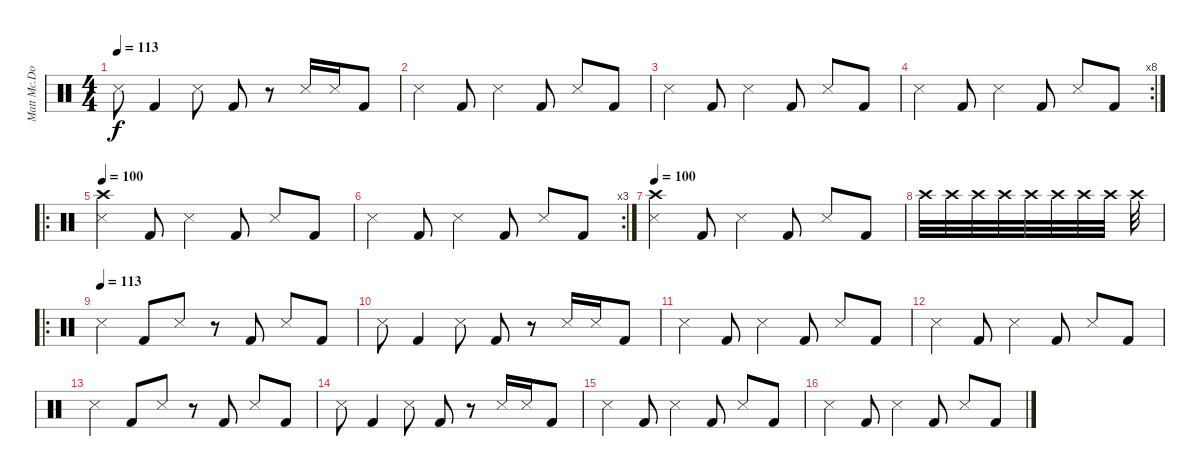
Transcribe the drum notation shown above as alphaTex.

\track ("Matt Mc.Donough" "Matt Mc.Do") {instrument percussion}
\staff {score}
\articulation defaults
\ts (4 4)
\tempo 113
\clef neutral
\ks c "Snare (side stick) 3".8{dy f} "Kick (hit) 2".4 "Snare (side stick) 3".8 "Kick (hit) 2".8
r.8 "Snare (side stick) 3".16 "Snare (side stick) 3".16 "Kick (hit) 2".8 |
"Snare (side stick) 3".4 "Kick (hit) 2".8 "Snare (side stick) 3".4 "Kick (hit) 2".8 "Snare (side stick) 3".8 "Kick (hit) 2".8 |
"Snare (side stick) 3".4 "Kick (hit) 2".8 "Snare (side stick) 3".4 "Kick (hit) 2".8 "Snare (side stick) 3".8 "Kick (hit) 2".8 |
\rc 8 "Snare (side stick) 3".4 "Kick (hit) 2".8 "Snare (side stick) 3".4 "Kick (hit) 2".8 "Snare (side stick) 3".8 "Kick (hit) 2".8
|
\ro
\tempo 100
("Crash high (hit)" "Snare (side stick) 3").4 "Kick (hit) 2".8 "Snare (side stick) 3".4 "Kick (hit) 2".8 "Snare (side stick) 3".8 "Kick (hit) 2".8 |
\rc 3 "Snare (side stick) 3".4 "Kick (hit) 2".8 "Snare (side stick) 3".4 "Kick (hit) 2".8 "Snare (side stick) 3".8 "Kick (hit) 2".8
|
\tempo 100
("Crash high (hit)" "Snare (side stick) 3").4 "Kick (hit) 2".8 "Snare (side stick) 3".4 "Kick (hit) 2".8 "Snare (side stick) 3".8 "Kick (hit) 2".8 |
"Crash high (hit)".32 "Crash high (hit)".32 "Crash high (hit)".32 "Crash high (hit)".32 "Crash high (hit)".32 "Crash high (hit)".32 "Crash high (hit)".32 "Crash high (hit)".32 "Crash high (hit)".32 |
\ro
\tempo (113)
"Snare (side stick) 3".4 "Kick (hit) 2".8 "Snare (side stick) 3".8 r.8 "Kick (hit) 2".8 "Snare (side stick) 3".8 "Kick (hit) 2".8 |
"Snare (side stick) 3".8 "Kick (hit) 2".4 "Snare (side stick) 3".8 "Kick (hit) 2".8 r.8 "Snare (side stick) 3".16 "Snare (side stick) 3".16 "Kick (hit) 2".8 |
"Snare (side stick) 3".4 "Kick (hit) 2".8 "Snare (side stick) 3".4 "Kick (hit) 2".8 "Snare (side stick) 3".8 "Kick (hit) 2".8 |
"Snare (side stick) 3".4 "Kick (hit) 2".8 "Snare (side stick) 3".4 "Kick (hit) 2".8 "Snare (side stick) 3".8 "Kick (hit) 2".8 |
"Snare (side stick) 3".4 "Kick (hit) 2".8 "Snare (side stick) 3".8 r.8 "Kick (hit) 2".8 "Snare (side stick) 3".8 "Kick (hit) 2".8 |
"Snare (side stick) 3".8 "Kick (hit) 2".4 "Snare (side stick) 3".8 "Kick (hit) 2".8 r.8 "Snare (side stick) 3".16 "Snare (side stick) 3".16 "Kick (hit) 2".8 |
"Snare (side stick) 3".4 "Kick (hit) 2".8 "Snare (side stick) 3".4 "Kick (hit) 2".8 "Snare (side stick) 3".8 "Kick (hit) 2".8 |
"Snare (side stick) 3".4 "Kick (hit) 2".8 "Snare (side stick) 3".4 "Kick (hit) 2".8 "Snare (side stick) 3".8 "Kick (hit) 2".8
